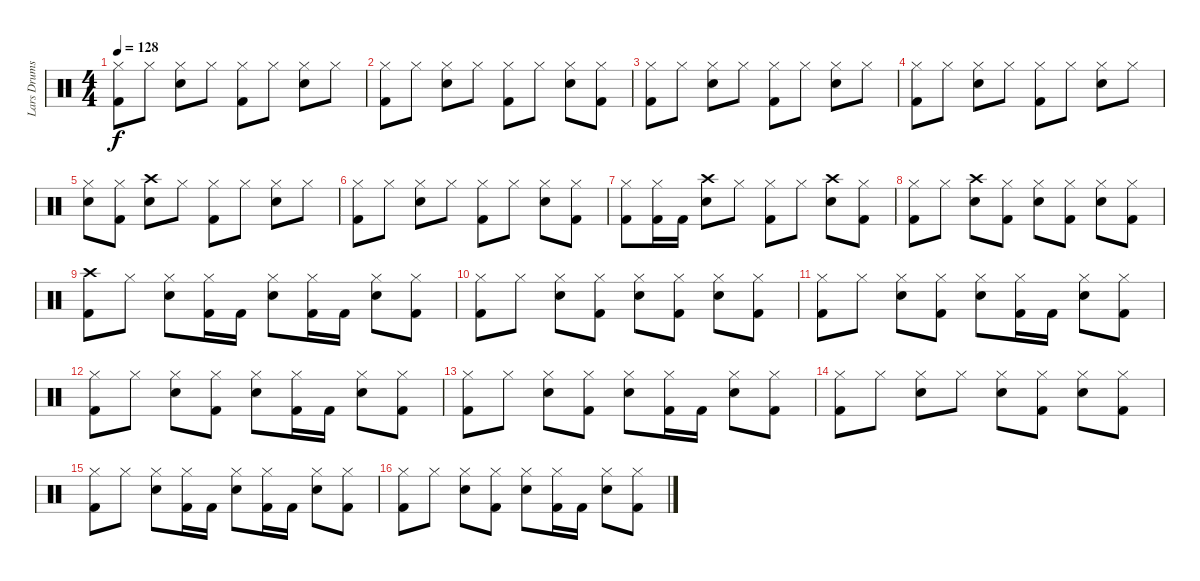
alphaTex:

\track ("Lars Drums" "Lars Drums") {instrument percussion}
\staff {score}
\articulation defaults
\ts (4 4)
\tempo 128
\clef neutral
\ks c
("Hi-Hat (closed)" "Kick (hit) 2").8{dy f} "Hi-Hat (closed)".8 ("Hi-Hat (closed)" "Electric Snare (hit)").8 "Hi-Hat (closed)".8 ("Hi-Hat (closed)" "Kick (hit) 2").8 "Hi-Hat (closed)".8 ("Hi-Hat (closed)" "Electric Snare (hit)").8 "Hi-Hat (closed)".8 |
("Hi-Hat (closed)" "Kick (hit) 2").8 "Hi-Hat (closed)".8 ("Hi-Hat (closed)" "Electric Snare (hit)").8 "Hi-Hat (closed)".8 ("Hi-Hat (closed)" "Kick (hit) 2").8 "Hi-Hat (closed)".8 ("Hi-Hat (closed)" "Electric Snare (hit)").8 ("Hi-Hat (closed)" "Kick (hit) 2").8 |
("Hi-Hat (closed)" "Kick (hit) 2").8 "Hi-Hat (closed)".8 ("Hi-Hat (closed)" "Electric Snare (hit)").8 "Hi-Hat (closed)".8 ("Hi-Hat (closed)" "Kick (hit) 2").8 "Hi-Hat (closed)".8 ("Hi-Hat (closed)" "Electric Snare (hit)").8 "Hi-Hat (closed)".8 |
("Hi-Hat (closed)" "Kick (hit) 2").8 "Hi-Hat (closed)".8 ("Hi-Hat (closed)" "Electric Snare (hit)").8 "Hi-Hat (closed)".8 ("Hi-Hat (closed)" "Kick (hit) 2").8 "Hi-Hat (closed)".8 ("Hi-Hat (closed)" "Electric Snare (hit)").8 "Hi-Hat (closed)".8 |
("Hi-Hat (closed)" "Electric Snare (hit)").8 ("Hi-Hat (closed)" "Kick (hit) 2").8 ("Crash high (hit)" "Electric Snare (hit)").8 "Hi-Hat (closed)".8 ("Hi-Hat (closed)" "Kick (hit) 2").8 "Hi-Hat (closed)".8 ("Hi-Hat (closed)" "Electric Snare (hit)").8 "Hi-Hat (closed)".8 |
("Hi-Hat (closed)" "Kick (hit) 2").8 "Hi-Hat (closed)".8 ("Hi-Hat (closed)" "Electric Snare (hit)").8 "Hi-Hat (closed)".8 ("Hi-Hat (closed)" "Kick (hit) 2").8 "Hi-Hat (closed)".8 ("Hi-Hat (closed)" "Electric Snare (hit)").8 ("Hi-Hat (closed)" "Kick (hit) 2").8 |
("Hi-Hat (closed)" "Kick (hit) 2").8 ("Hi-Hat (closed)" "Kick (hit) 2").16 "Kick (hit) 2".16 ("Crash high (hit)" "Electric Snare (hit)").8 "Hi-Hat (closed)".8 ("Hi-Hat (closed)" "Kick (hit) 2").8 "Hi-Hat (closed)".8 ("Crash high (hit)" "Electric Snare (hit)").8 ("Hi-Hat (closed)" "Kick (hit) 2").8 |
("Hi-Hat (closed)" "Kick (hit) 2").8 "Hi-Hat (closed)".8 ("Crash high (hit)" "Electric Snare (hit)").8 ("Hi-Hat (closed)" "Kick (hit) 2").8 ("Hi-Hat (closed)" "Electric Snare (hit)").8 ("Hi-Hat (closed)" "Kick (hit) 2").8 ("Hi-Hat (closed)" "Electric Snare (hit)").8 ("Hi-Hat (closed)" "Kick (hit) 2").8 |
("Crash high (hit)" "Kick (hit) 2").8 "Hi-Hat (closed)".8 ("Hi-Hat (closed)" "Electric Snare (hit)").8 ("Hi-Hat (closed)" "Kick (hit) 2").16 "Kick (hit) 2".16 ("Hi-Hat (closed)" "Electric Snare (hit)").8 ("Hi-Hat (closed)" "Kick (hit) 2").16 "Kick (hit) 2".16 ("Hi-Hat (closed)" "Electric Snare (hit)").8 ("Hi-Hat (closed)" "Kick (hit) 2").8 |
("Hi-Hat (closed)" "Kick (hit) 2").8 "Hi-Hat (closed)".8 ("Hi-Hat (closed)" "Electric Snare (hit)").8 ("Hi-Hat (closed)" "Kick (hit) 2").8 ("Hi-Hat (closed)" "Electric Snare (hit)").8 ("Hi-Hat (closed)" "Kick (hit) 2").8 ("Hi-Hat (closed)" "Electric Snare (hit)").8 ("Hi-Hat (closed)" "Kick (hit) 2").8 |
("Hi-Hat (closed)" "Kick (hit) 2").8 "Hi-Hat (closed)".8 ("Hi-Hat (closed)" "Electric Snare (hit)").8 ("Hi-Hat (closed)" "Kick (hit) 2").8 ("Hi-Hat (closed)" "Electric Snare (hit)").8 ("Hi-Hat (closed)" "Kick (hit) 2").16 "Kick (hit) 2".16 ("Hi-Hat (closed)" "Electric Snare (hit)").8 ("Hi-Hat (closed)" "Kick (hit) 2").8 |
("Hi-Hat (closed)" "Kick (hit) 2").8 "Hi-Hat (closed)".8 ("Hi-Hat (closed)" "Electric Snare (hit)").8 ("Hi-Hat (closed)" "Kick (hit) 2").8 ("Hi-Hat (closed)" "Electric Snare (hit)").8 ("Hi-Hat (closed)" "Kick (hit) 2").16 "Kick (hit) 2".16 ("Hi-Hat (closed)" "Electric Snare (hit)").8 ("Hi-Hat (closed)" "Kick (hit) 2").8 |
("Hi-Hat (closed)" "Kick (hit) 2").8 "Hi-Hat (closed)".8 ("Hi-Hat (closed)" "Electric Snare (hit)").8 ("Hi-Hat (closed)" "Kick (hit) 2").8 ("Hi-Hat (closed)" "Electric Snare (hit)").8 ("Hi-Hat (closed)" "Kick (hit) 2").16 "Kick (hit) 2".16 ("Hi-Hat (closed)" "Electric Snare (hit)").8 ("Hi-Hat (closed)" "Kick (hit) 2").8 |
("Hi-Hat (closed)" "Kick (hit) 2").8 "Hi-Hat (closed)".8 ("Hi-Hat (closed)" "Electric Snare (hit)").8 "Hi-Hat (closed)".8 ("Hi-Hat (closed)" "Electric Snare (hit)").8 ("Hi-Hat (closed)" "Kick (hit) 2").8 ("Hi-Hat (closed)" "Electric Snare (hit)").8 ("Hi-Hat (closed)" "Kick (hit) 2").8 |
("Hi-Hat (closed)" "Kick (hit) 2").8 "Hi-Hat (closed)".8 ("Hi-Hat (closed)" "Electric Snare (hit)").8 ("Hi-Hat (closed)" "Kick (hit) 2").16 "Kick (hit) 2".16 ("Hi-Hat (closed)" "Electric Snare (hit)").8 ("Hi-Hat (closed)" "Kick (hit) 2").16 "Kick (hit) 2".16 ("Hi-Hat (closed)" "Electric Snare (hit)").8 ("Hi-Hat (closed)" "Kick (hit) 2").8 |
("Hi-Hat (closed)" "Kick (hit) 2").8 "Hi-Hat (closed)".8 ("Hi-Hat (closed)" "Electric Snare (hit)").8 ("Hi-Hat (closed)" "Kick (hit) 2").8 ("Hi-Hat (closed)" "Electric Snare (hit)").8 ("Hi-Hat (closed)" "Kick (hit) 2").16 "Kick (hit) 2".16 ("Hi-Hat (closed)" "Electric Snare (hit)").8 ("Hi-Hat (closed)" "Kick (hit) 2").8
